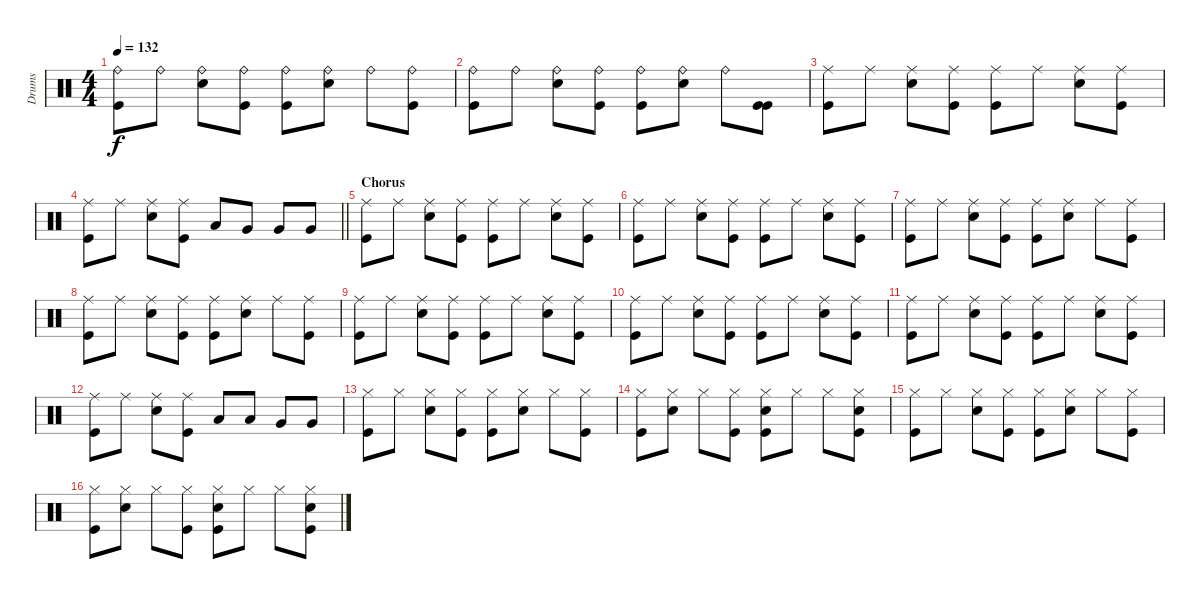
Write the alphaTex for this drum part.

\track ("Drums" "Drums") {instrument percussion}
\staff {score}
\articulation defaults
\ts (4 4)
\tempo 132
\clef neutral
\ks c
("Ride (bell)" "Kick (hit)").8{dy f} "Ride (bell)".8 ("Ride (bell)" "Electric Snare (hit)").8 ("Ride (bell)" "Kick (hit)").8 ("Ride (bell)" "Kick (hit)").8 ("Ride (bell)" "Electric Snare (hit)").8 "Ride (bell)".8 ("Ride (bell)" "Kick (hit)").8 |
("Ride (bell)" "Kick (hit)").8 "Ride (bell)".8 ("Ride (bell)" "Electric Snare (hit)").8 ("Ride (bell)" "Kick (hit)").8 ("Ride (bell)" "Kick (hit)").8 ("Ride (bell)" "Electric Snare (hit)").8 "Ride (bell)".8 ("Kick (hit)" "Kick (hit)").8 |
("Ride (middle)" "Kick (hit)").8 "Ride (middle)".8 ("Ride (middle)" "Electric Snare (hit)").8 ("Ride (middle)" "Kick (hit)").8 ("Ride (middle)" "Kick (hit)").8 "Ride (middle)".8 ("Ride (middle)" "Electric Snare (hit)").8 ("Ride (middle)" "Kick (hit)").8 |
\barLineRight lightlight
("Ride (middle)" "Kick (hit)").8 "Ride (middle)".8 ("Ride (middle)" "Electric Snare (hit)").8 ("Ride (middle)" "Kick (hit)").8 "Low Tom (hit)".8 "Very Low Tom (hit)".8 "Very Low Tom (hit)".8 "Very Low Tom (hit)".8 |
\section ("" "Chorus")
("Ride (middle)" "Kick (hit)").8 "Ride (middle)".8 ("Ride (middle)" "Electric Snare (hit)").8 ("Ride (middle)" "Kick (hit)").8 ("Ride (middle)" "Kick (hit)").8 "Ride (middle)".8 ("Ride (middle)" "Electric Snare (hit)").8 ("Ride (middle)" "Kick (hit)").8 |
("Ride (middle)" "Kick (hit)").8 "Ride (middle)".8 ("Ride (middle)" "Electric Snare (hit)").8 ("Ride (middle)" "Kick (hit)").8 ("Ride (middle)" "Kick (hit)").8 "Ride (middle)".8 ("Ride (middle)" "Electric Snare (hit)").8 ("Ride (middle)" "Kick (hit)").8 |
("Ride (middle)" "Kick (hit)").8 "Ride (middle)".8 ("Ride (middle)" "Electric Snare (hit)").8 ("Ride (middle)" "Kick (hit)").8 ("Ride (middle)" "Kick (hit)").8 ("Ride (middle)" "Electric Snare (hit)").8 "Ride (middle)".8 ("Ride (middle)" "Kick (hit)").8 |
("Ride (middle)" "Kick (hit)").8 "Ride (middle)".8 ("Ride (middle)" "Electric Snare (hit)").8 ("Ride (middle)" "Kick (hit)").8 ("Ride (middle)" "Kick (hit)").8 ("Ride (middle)" "Electric Snare (hit)").8 "Ride (middle)".8 ("Ride (middle)" "Kick (hit)").8 |
("Ride (middle)" "Kick (hit)").8 "Ride (middle)".8 ("Ride (middle)" "Electric Snare (hit)").8 ("Ride (middle)" "Kick (hit)").8 ("Ride (middle)" "Kick (hit)").8 "Ride (middle)".8 ("Ride (middle)" "Electric Snare (hit)").8 ("Ride (middle)" "Kick (hit)").8 |
("Ride (middle)" "Kick (hit)").8 "Ride (middle)".8 ("Ride (middle)" "Electric Snare (hit)").8 ("Ride (middle)" "Kick (hit)").8 ("Ride (middle)" "Kick (hit)").8 "Ride (middle)".8 ("Ride (middle)" "Electric Snare (hit)").8 ("Ride (middle)" "Kick (hit)").8 |
("Ride (middle)" "Kick (hit)").8 "Ride (middle)".8 ("Ride (middle)" "Electric Snare (hit)").8 ("Ride (middle)" "Kick (hit)").8 ("Ride (middle)" "Kick (hit)").8 "Ride (middle)".8 ("Ride (middle)" "Electric Snare (hit)").8 ("Ride (middle)" "Kick (hit)").8 |
("Ride (middle)" "Kick (hit)").8 "Ride (middle)".8 ("Ride (middle)" "Electric Snare (hit)").8 ("Ride (middle)" "Kick (hit)").8 "Low Tom (hit)".8 "Low Tom (hit)".8 "Very Low Tom (hit)".8 "Very Low Tom (hit)".8 |
("Hi-Hat (closed)" "Kick (hit)").8 "Hi-Hat (closed)".8 ("Hi-Hat (closed)" "Electric Snare (hit)").8 ("Hi-Hat (closed)" "Kick (hit)").8 ("Hi-Hat (closed)" "Kick (hit)").8 ("Hi-Hat (closed)" "Electric Snare (hit)").8 "Hi-Hat (closed)".8 ("Hi-Hat (closed)" "Kick (hit)").8 |
("Hi-Hat (closed)" "Kick (hit)").8 ("Hi-Hat (closed)" "Electric Snare (hit)").8 "Hi-Hat (closed)".8 ("Hi-Hat (closed)" "Kick (hit)").8 ("Hi-Hat (closed)" "Electric Snare (hit)" "Kick (hit)").8 "Hi-Hat (closed)".8 "Hi-Hat (closed)".8 ("Hi-Hat (closed)" "Electric Snare (hit)" "Kick (hit)").8 |
("Hi-Hat (closed)" "Kick (hit)").8 "Hi-Hat (closed)".8 ("Hi-Hat (closed)" "Electric Snare (hit)").8 ("Hi-Hat (closed)" "Kick (hit)").8 ("Hi-Hat (closed)" "Kick (hit)").8 ("Hi-Hat (closed)" "Electric Snare (hit)").8 "Hi-Hat (closed)".8 ("Hi-Hat (closed)" "Kick (hit)").8 |
("Hi-Hat (closed)" "Kick (hit)").8 ("Hi-Hat (closed)" "Electric Snare (hit)").8 "Hi-Hat (closed)".8 ("Hi-Hat (closed)" "Kick (hit)").8 ("Hi-Hat (closed)" "Electric Snare (hit)" "Kick (hit)").8 "Hi-Hat (closed)".8 "Hi-Hat (closed)".8 ("Hi-Hat (closed)" "Electric Snare (hit)" "Kick (hit)").8
